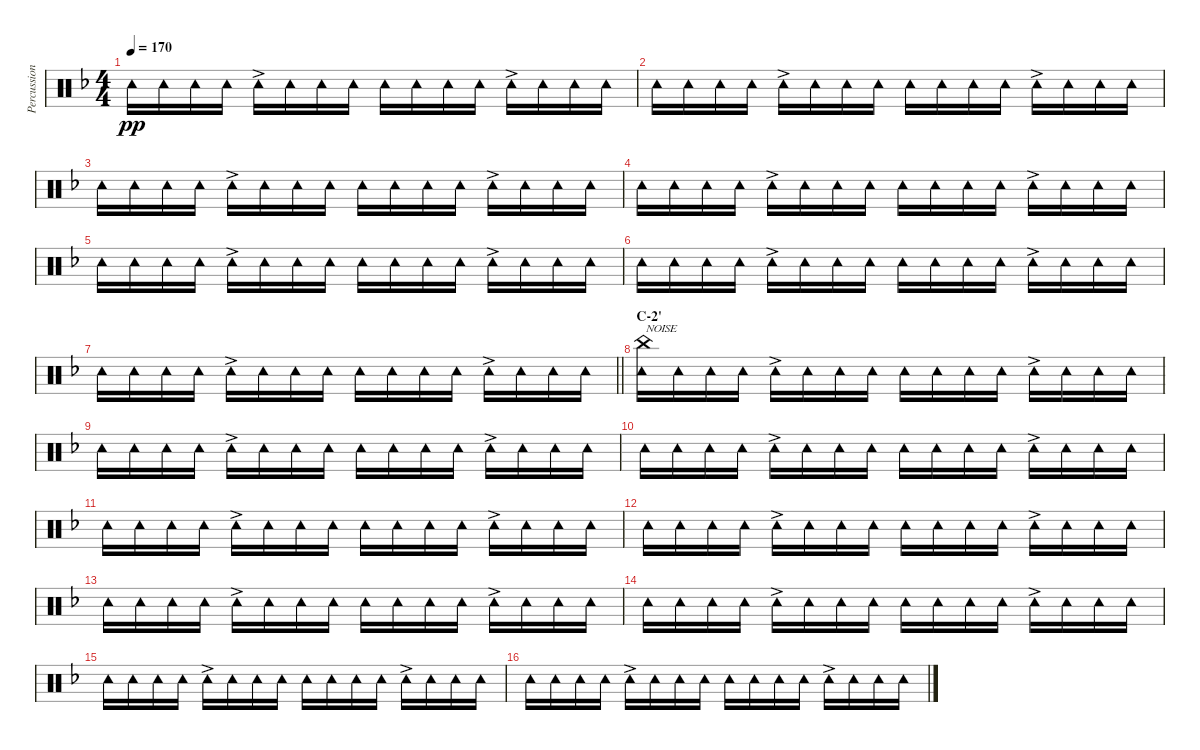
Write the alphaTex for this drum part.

\track ("Percussion (Tainaka Ritsu)" "Percussion") {instrument percussion}
\staff {score}
\articulation defaults
\ts (4 4)
\tempo 170
\clef neutral
\ks f "Tambourine (hit)".16{dy pp} "Tambourine (hit)".16 "Tambourine (hit)".16 "Tambourine (hit)".16 "Tambourine (hit)"{ac}.16 "Tambourine (hit)".16 "Tambourine (hit)".16 "Tambourine (hit)".16 "Tambourine (hit)".16 "Tambourine (hit)".16 "Tambourine (hit)".16 "Tambourine (hit)".16 "Tambourine (hit)"{ac}.16 "Tambourine (hit)".16 "Tambourine (hit)".16 "Tambourine (hit)".16
|
"Tambourine (hit)".16 "Tambourine (hit)".16 "Tambourine (hit)".16 "Tambourine (hit)".16 "Tambourine (hit)"{ac}.16 "Tambourine (hit)".16 "Tambourine (hit)".16 "Tambourine (hit)".16 "Tambourine (hit)".16 "Tambourine (hit)".16 "Tambourine (hit)".16 "Tambourine (hit)".16 "Tambourine (hit)"{ac}.16 "Tambourine (hit)".16 "Tambourine (hit)".16 "Tambourine (hit)".16 |
"Tambourine (hit)".16 "Tambourine (hit)".16 "Tambourine (hit)".16 "Tambourine (hit)".16 "Tambourine (hit)"{ac}.16 "Tambourine (hit)".16 "Tambourine (hit)".16 "Tambourine (hit)".16 "Tambourine (hit)".16 "Tambourine (hit)".16 "Tambourine (hit)".16 "Tambourine (hit)".16 "Tambourine (hit)"{ac}.16 "Tambourine (hit)".16 "Tambourine (hit)".16 "Tambourine (hit)".16 |
"Tambourine (hit)".16 "Tambourine (hit)".16 "Tambourine (hit)".16 "Tambourine (hit)".16 "Tambourine (hit)"{ac}.16 "Tambourine (hit)".16 "Tambourine (hit)".16 "Tambourine (hit)".16 "Tambourine (hit)".16 "Tambourine (hit)".16 "Tambourine (hit)".16 "Tambourine (hit)".16 "Tambourine (hit)"{ac}.16 "Tambourine (hit)".16 "Tambourine (hit)".16 "Tambourine (hit)".16 |
"Tambourine (hit)".16 "Tambourine (hit)".16 "Tambourine (hit)".16 "Tambourine (hit)".16 "Tambourine (hit)"{ac}.16 "Tambourine (hit)".16 "Tambourine (hit)".16 "Tambourine (hit)".16 "Tambourine (hit)".16 "Tambourine (hit)".16 "Tambourine (hit)".16 "Tambourine (hit)".16 "Tambourine (hit)"{ac}.16 "Tambourine (hit)".16 "Tambourine (hit)".16 "Tambourine (hit)".16 |
"Tambourine (hit)".16 "Tambourine (hit)".16 "Tambourine (hit)".16 "Tambourine (hit)".16 "Tambourine (hit)"{ac}.16 "Tambourine (hit)".16 "Tambourine (hit)".16 "Tambourine (hit)".16 "Tambourine (hit)".16 "Tambourine (hit)".16 "Tambourine (hit)".16 "Tambourine (hit)".16 "Tambourine (hit)"{ac}.16 "Tambourine (hit)".16 "Tambourine (hit)".16 "Tambourine (hit)".16 |
\barLineRight lightlight "Tambourine (hit)".16 "Tambourine (hit)".16 "Tambourine (hit)".16 "Tambourine (hit)".16 "Tambourine (hit)"{ac}.16 "Tambourine (hit)".16 "Tambourine (hit)".16 "Tambourine (hit)".16 "Tambourine (hit)".16 "Tambourine (hit)".16 "Tambourine (hit)".16 "Tambourine (hit)".16 "Tambourine (hit)"{ac}.16 "Tambourine (hit)".16 "Tambourine (hit)".16 "Tambourine (hit)".16
|
\section ("" "C-2'")
("China (hit)" "Tambourine (hit)").16{txt "NOISE"} "Tambourine (hit)".16 "Tambourine (hit)".16 "Tambourine (hit)".16 "Tambourine (hit)"{ac}.16 "Tambourine (hit)".16 "Tambourine (hit)".16 "Tambourine (hit)".16 "Tambourine (hit)".16 "Tambourine (hit)".16 "Tambourine (hit)".16 "Tambourine (hit)".16 "Tambourine (hit)"{ac}.16 "Tambourine (hit)".16 "Tambourine (hit)".16 "Tambourine (hit)".16 |
"Tambourine (hit)".16 "Tambourine (hit)".16 "Tambourine (hit)".16 "Tambourine (hit)".16 "Tambourine (hit)"{ac}.16 "Tambourine (hit)".16 "Tambourine (hit)".16 "Tambourine (hit)".16 "Tambourine (hit)".16 "Tambourine (hit)".16 "Tambourine (hit)".16 "Tambourine (hit)".16 "Tambourine (hit)"{ac}.16 "Tambourine (hit)".16 "Tambourine (hit)".16 "Tambourine (hit)".16 |
"Tambourine (hit)".16 "Tambourine (hit)".16 "Tambourine (hit)".16 "Tambourine (hit)".16 "Tambourine (hit)"{ac}.16 "Tambourine (hit)".16 "Tambourine (hit)".16 "Tambourine (hit)".16 "Tambourine (hit)".16 "Tambourine (hit)".16 "Tambourine (hit)".16 "Tambourine (hit)".16 "Tambourine (hit)"{ac}.16 "Tambourine (hit)".16 "Tambourine (hit)".16 "Tambourine (hit)".16 |
"Tambourine (hit)".16 "Tambourine (hit)".16 "Tambourine (hit)".16 "Tambourine (hit)".16 "Tambourine (hit)"{ac}.16 "Tambourine (hit)".16 "Tambourine (hit)".16 "Tambourine (hit)".16 "Tambourine (hit)".16 "Tambourine (hit)".16 "Tambourine (hit)".16 "Tambourine (hit)".16 "Tambourine (hit)"{ac}.16 "Tambourine (hit)".16 "Tambourine (hit)".16 "Tambourine (hit)".16 |
"Tambourine (hit)".16 "Tambourine (hit)".16 "Tambourine (hit)".16 "Tambourine (hit)".16 "Tambourine (hit)"{ac}.16 "Tambourine (hit)".16 "Tambourine (hit)".16 "Tambourine (hit)".16 "Tambourine (hit)".16 "Tambourine (hit)".16 "Tambourine (hit)".16 "Tambourine (hit)".16 "Tambourine (hit)"{ac}.16 "Tambourine (hit)".16 "Tambourine (hit)".16 "Tambourine (hit)".16 |
"Tambourine (hit)".16 "Tambourine (hit)".16 "Tambourine (hit)".16 "Tambourine (hit)".16 "Tambourine (hit)"{ac}.16 "Tambourine (hit)".16 "Tambourine (hit)".16 "Tambourine (hit)".16 "Tambourine (hit)".16 "Tambourine (hit)".16 "Tambourine (hit)".16 "Tambourine (hit)".16 "Tambourine (hit)"{ac}.16 "Tambourine (hit)".16 "Tambourine (hit)".16 "Tambourine (hit)".16 |
"Tambourine (hit)".16 "Tambourine (hit)".16 "Tambourine (hit)".16 "Tambourine (hit)".16 "Tambourine (hit)"{ac}.16 "Tambourine (hit)".16 "Tambourine (hit)".16 "Tambourine (hit)".16 "Tambourine (hit)".16 "Tambourine (hit)".16 "Tambourine (hit)".16 "Tambourine (hit)".16 "Tambourine (hit)"{ac}.16 "Tambourine (hit)".16 "Tambourine (hit)".16 "Tambourine (hit)".16 |
"Tambourine (hit)".16 "Tambourine (hit)".16 "Tambourine (hit)".16 "Tambourine (hit)".16 "Tambourine (hit)"{ac}.16 "Tambourine (hit)".16 "Tambourine (hit)".16 "Tambourine (hit)".16 "Tambourine (hit)".16 "Tambourine (hit)".16 "Tambourine (hit)".16 "Tambourine (hit)".16 "Tambourine (hit)"{ac}.16 "Tambourine (hit)".16 "Tambourine (hit)".16 "Tambourine (hit)".16 |
"Tambourine (hit)".16 "Tambourine (hit)".16 "Tambourine (hit)".16 "Tambourine (hit)".16 "Tambourine (hit)"{ac}.16 "Tambourine (hit)".16 "Tambourine (hit)".16 "Tambourine (hit)".16 "Tambourine (hit)".16 "Tambourine (hit)".16 "Tambourine (hit)".16 "Tambourine (hit)".16 "Tambourine (hit)"{ac}.16 "Tambourine (hit)".16 "Tambourine (hit)".16 "Tambourine (hit)".16
